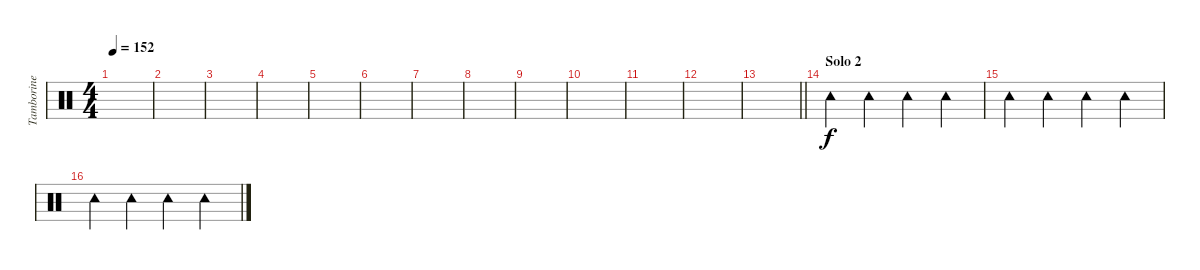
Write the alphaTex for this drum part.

\track ("Tamborine" "Tamborine") {instrument percussion}
\staff {score}
\articulation defaults
\ts (4 4)
\tempo 152
\clef neutral
\ks c
|
|
|
|
|
|
|
|
|
|
|
|
\barLineRight lightlight
|
\section ("" "Solo 2")
"Tambourine (hit)".4 "Tambourine (hit)".4 "Tambourine (hit)".4 "Tambourine (hit)".4 |
"Tambourine (hit)".4 "Tambourine (hit)".4 "Tambourine (hit)".4 "Tambourine (hit)".4 |
"Tambourine (hit)".4 "Tambourine (hit)".4 "Tambourine (hit)".4 "Tambourine (hit)".4
